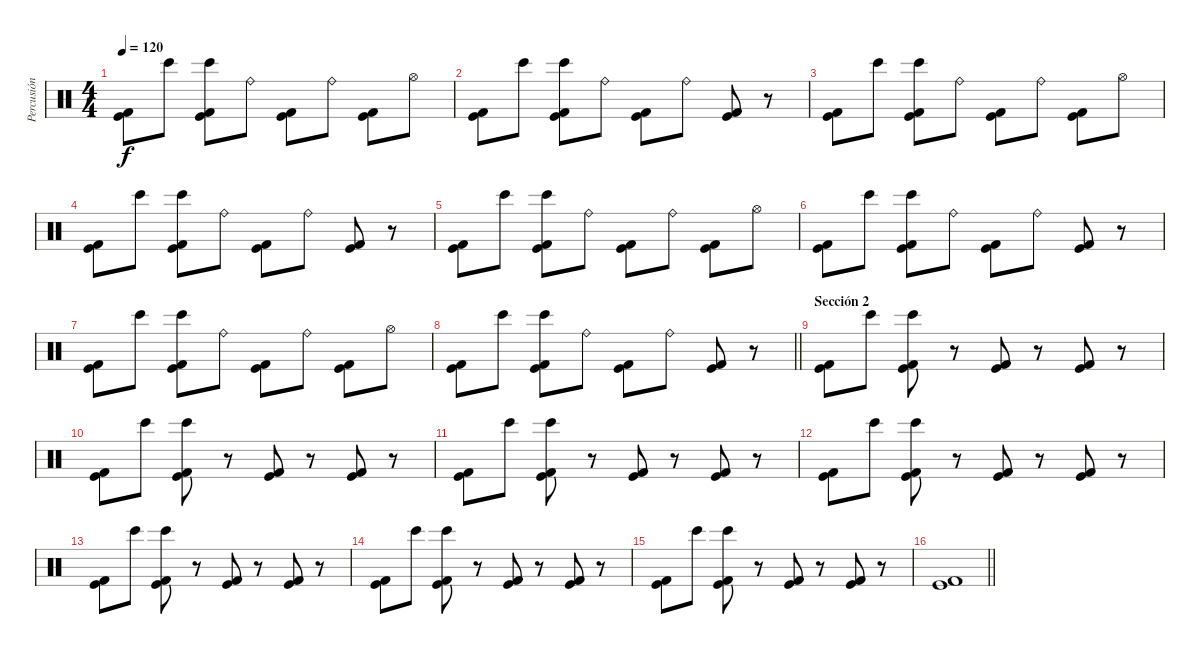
\track ("Percusión 2" "Percusión ") {instrument percussion}
\staff {score}
\articulation defaults
\ts (4 4)
\tempo 120
\clef neutral
\ks c
("Kick (hit)" "Kick (hit) 2").8{dy f} "Bongo High (hit)".8 ("Kick (hit) 2" "Kick (hit)" "Bongo High (hit)").8 "Ride (bell)".8 ("Kick (hit) 2" "Kick (hit)").8 "Ride (bell)".8 ("Kick (hit) 2" "Kick (hit)").8 "Hi-Hat (open)".8 |
("Kick (hit)" "Kick (hit) 2").8 "Bongo High (hit)".8 ("Kick (hit) 2" "Kick (hit)" "Bongo High (hit)").8 "Ride (bell)".8 ("Kick (hit) 2" "Kick (hit)").8 "Ride (bell)".8 ("Kick (hit) 2" "Kick (hit)").8 r.8 |
("Kick (hit)" "Kick (hit) 2").8 "Bongo High (hit)".8 ("Kick (hit) 2" "Kick (hit)" "Bongo High (hit)").8 "Ride (bell)".8 ("Kick (hit) 2" "Kick (hit)").8 "Ride (bell)".8 ("Kick (hit) 2" "Kick (hit)").8 "Hi-Hat (open)".8 |
("Kick (hit)" "Kick (hit) 2").8 "Bongo High (hit)".8 ("Kick (hit) 2" "Kick (hit)" "Bongo High (hit)").8 "Ride (bell)".8 ("Kick (hit) 2" "Kick (hit)").8 "Ride (bell)".8 ("Kick (hit) 2" "Kick (hit)").8 r.8 |
("Kick (hit)" "Kick (hit) 2").8 "Bongo High (hit)".8 ("Kick (hit) 2" "Kick (hit)" "Bongo High (hit)").8 "Ride (bell)".8 ("Kick (hit) 2" "Kick (hit)").8 "Ride (bell)".8 ("Kick (hit) 2" "Kick (hit)").8 "Hi-Hat (open)".8 |
("Kick (hit)" "Kick (hit) 2").8 "Bongo High (hit)".8 ("Kick (hit) 2" "Kick (hit)" "Bongo High (hit)").8 "Ride (bell)".8 ("Kick (hit) 2" "Kick (hit)").8 "Ride (bell)".8 ("Kick (hit) 2" "Kick (hit)").8 r.8 |
("Kick (hit)" "Kick (hit) 2").8 "Bongo High (hit)".8 ("Kick (hit) 2" "Kick (hit)" "Bongo High (hit)").8 "Ride (bell)".8 ("Kick (hit) 2" "Kick (hit)").8 "Ride (bell)".8 ("Kick (hit) 2" "Kick (hit)").8 "Hi-Hat (open)".8 |
\barLineRight lightlight
("Kick (hit)" "Kick (hit) 2").8 "Bongo High (hit)".8 ("Kick (hit) 2" "Kick (hit)" "Bongo High (hit)").8 "Ride (bell)".8 ("Kick (hit) 2" "Kick (hit)").8 "Ride (bell)".8 ("Kick (hit) 2" "Kick (hit)").8 r.8 |
\section ("" "Sección 2")
("Kick (hit)" "Kick (hit) 2").8 "Bongo High (hit)".8 ("Kick (hit) 2" "Kick (hit)" "Bongo High (hit)").8 r.8 ("Kick (hit) 2" "Kick (hit)").8 r.8 ("Kick (hit) 2" "Kick (hit)").8 r.8 |
("Kick (hit)" "Kick (hit) 2").8 "Bongo High (hit)".8 ("Kick (hit) 2" "Kick (hit)" "Bongo High (hit)").8 r.8 ("Kick (hit) 2" "Kick (hit)").8 r.8 ("Kick (hit) 2" "Kick (hit)").8 r.8 |
("Kick (hit)" "Kick (hit) 2").8 "Bongo High (hit)".8 ("Kick (hit) 2" "Kick (hit)" "Bongo High (hit)").8 r.8 ("Kick (hit) 2" "Kick (hit)").8 r.8 ("Kick (hit) 2" "Kick (hit)").8 r.8 |
("Kick (hit)" "Kick (hit) 2").8 "Bongo High (hit)".8 ("Kick (hit) 2" "Kick (hit)" "Bongo High (hit)").8 r.8 ("Kick (hit) 2" "Kick (hit)").8 r.8 ("Kick (hit) 2" "Kick (hit)").8 r.8 |
("Kick (hit)" "Kick (hit) 2").8 "Bongo High (hit)".8 ("Kick (hit) 2" "Kick (hit)" "Bongo High (hit)").8 r.8 ("Kick (hit) 2" "Kick (hit)").8 r.8 ("Kick (hit) 2" "Kick (hit)").8 r.8 |
("Kick (hit)" "Kick (hit) 2").8 "Bongo High (hit)".8 ("Kick (hit) 2" "Kick (hit)" "Bongo High (hit)").8 r.8 ("Kick (hit) 2" "Kick (hit)").8 r.8 ("Kick (hit) 2" "Kick (hit)").8 r.8 |
("Kick (hit)" "Kick (hit) 2").8 "Bongo High (hit)".8 ("Kick (hit) 2" "Kick (hit)" "Bongo High (hit)").8 r.8 ("Kick (hit) 2" "Kick (hit)").8 r.8 ("Kick (hit) 2" "Kick (hit)").8 r.8 |
\barLineRight lightlight
("Kick (hit)" "Kick (hit) 2").1
